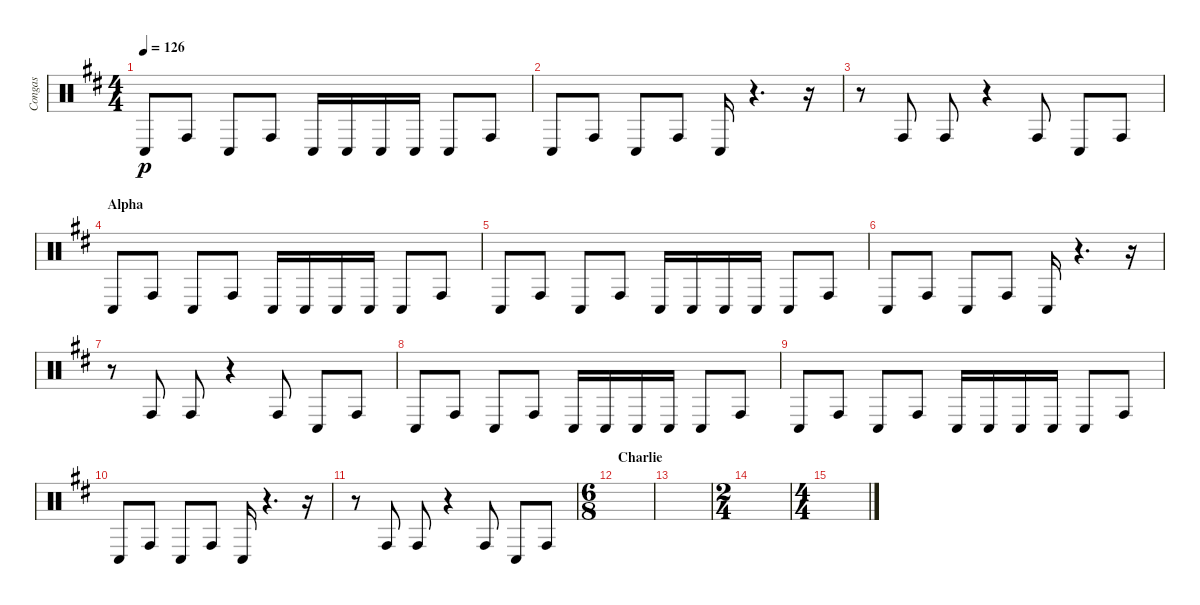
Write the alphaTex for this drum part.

\track ("Congas" "Congas") {instrument percussion}
\staff {score}
\articulation defaults
\ts (4 4)
\tempo 126
\clef neutral
\ks bminor "Conga low (hit)".8{dy p} "Conga high (hit)".8 "Conga low (hit)".8 "Conga high (hit)".8 "Conga low (hit)".16 "Conga low (hit)".16 "Conga low (hit)".16 "Conga low (hit)".16 "Conga low (hit)".8 "Conga high (hit)".8
|
"Conga low (hit)".8 "Conga high (hit)".8 "Conga low (hit)".8 "Conga high (hit)".8 "Conga low (hit)".16 r.4{d} r.16 |
r.8 "Conga high (hit)".8 "Conga high (hit)".8 r.4 "Conga high (hit)".8 "Conga low (hit)".8 "Conga high (hit)".8 |
\section ("" "Alpha")
"Conga low (hit)".8 "Conga high (hit)".8 "Conga low (hit)".8 "Conga high (hit)".8 "Conga low (hit)".16 "Conga low (hit)".16 "Conga low (hit)".16 "Conga low (hit)".16 "Conga low (hit)".8 "Conga high (hit)".8 |
"Conga low (hit)".8 "Conga high (hit)".8 "Conga low (hit)".8 "Conga high (hit)".8 "Conga low (hit)".16 "Conga low (hit)".16 "Conga low (hit)".16 "Conga low (hit)".16 "Conga low (hit)".8 "Conga high (hit)".8 |
"Conga low (hit)".8 "Conga high (hit)".8 "Conga low (hit)".8 "Conga high (hit)".8 "Conga low (hit)".16 r.4{d} r.16 |
r.8 "Conga high (hit)".8 "Conga high (hit)".8 r.4 "Conga high (hit)".8 "Conga low (hit)".8 "Conga high (hit)".8 |
"Conga low (hit)".8 "Conga high (hit)".8 "Conga low (hit)".8 "Conga high (hit)".8 "Conga low (hit)".16 "Conga low (hit)".16 "Conga low (hit)".16 "Conga low (hit)".16 "Conga low (hit)".8 "Conga high (hit)".8 |
"Conga low (hit)".8 "Conga high (hit)".8 "Conga low (hit)".8 "Conga high (hit)".8 "Conga low (hit)".16 "Conga low (hit)".16 "Conga low (hit)".16 "Conga low (hit)".16 "Conga low (hit)".8 "Conga high (hit)".8 |
"Conga low (hit)".8 "Conga high (hit)".8 "Conga low (hit)".8 "Conga high (hit)".8 "Conga low (hit)".16 r.4{d} r.16 |
r.8 "Conga high (hit)".8 "Conga high (hit)".8 r.4 "Conga high (hit)".8 "Conga low (hit)".8 "Conga high (hit)".8 |
\ts (6 8)
\section ("" "Charlie")
|
|
\ts (2 4)
|
\ts (4 4)
